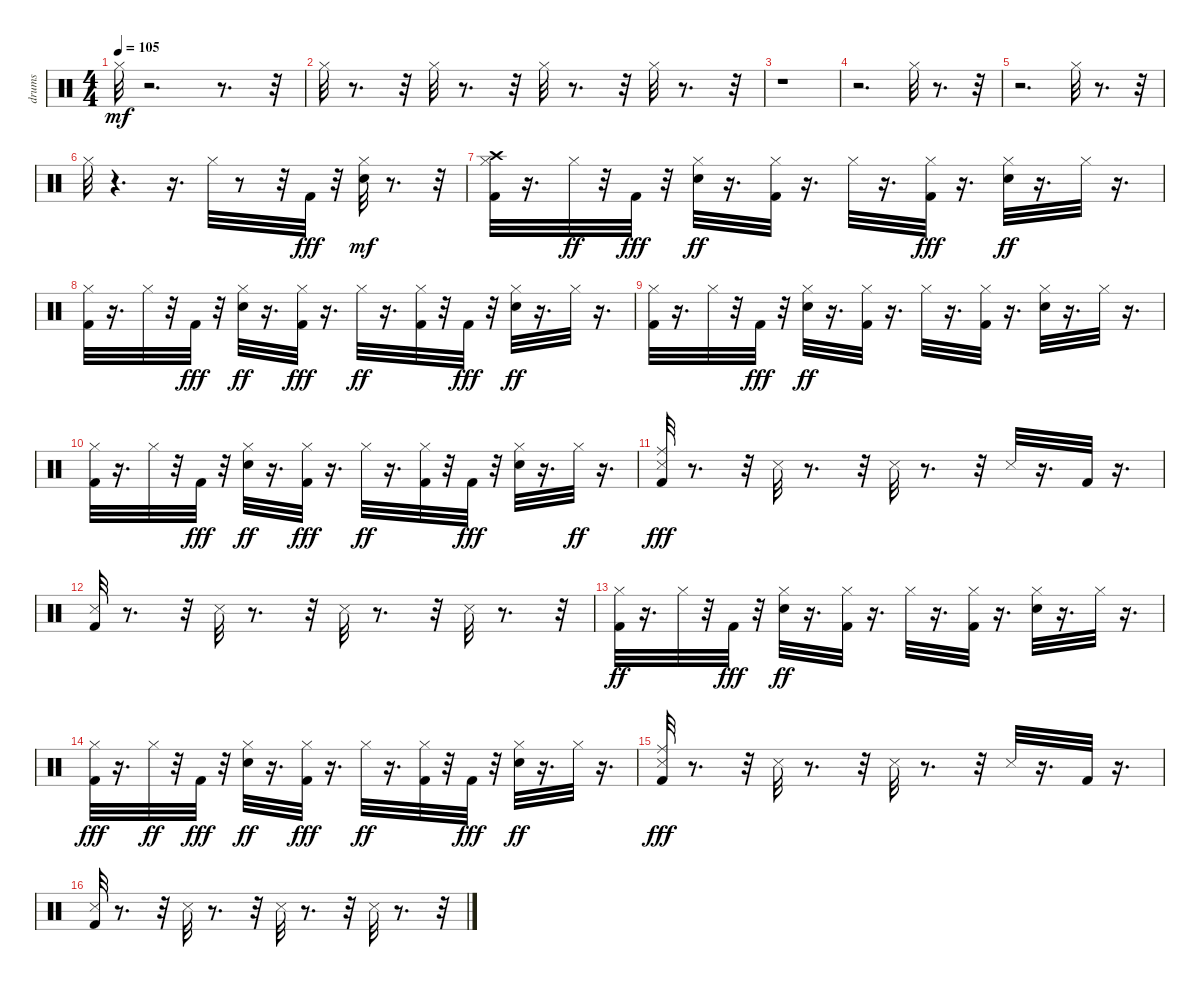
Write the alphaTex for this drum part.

\track ("drums" "drums") {instrument percussion}
\staff {score}
\articulation defaults
\ts (4 4)
\tempo 105
\clef neutral
\ks c "Hi-Hat (closed)".32{dy mf}
r.2{d} r.8{d} r.32 |
"Hi-Hat (closed)".32 r.8{d} r.32 "Hi-Hat (closed)".32 r.8{d} r.32 "Hi-Hat (closed)".32 r.8{d} r.32 "Hi-Hat (closed)".32 r.8{d} r.32 |
r.1 |
r.2{d} "Hi-Hat (closed)".32 r.8{d} r.32 |
r.2{d} "Hi-Hat (closed)".32 r.8{d} r.32 |
"Hi-Hat (closed)".32 r.4{d} r.16{d} "Hi-Hat (closed)".32 r.8 r.32 "Kick (hit) 2".32{dy fff} r.32 ("Electric Snare (hit)" "Hi-Hat (closed)").32{dy mf} r.8{d} r.32 |
("Hi-Hat (closed)" "Kick (hit) 2" "Crash high (hit)").32 r.16{d} "Hi-Hat (closed)".32{dy ff} r.32 "Kick (hit) 2".32{dy fff} r.32 ("Electric Snare (hit)" "Hi-Hat (closed)").32{dy ff} r.16{d} ("Kick (hit) 2" "Hi-Hat (closed)").32 r.16{d} "Hi-Hat (closed)".32 r.16{d} ("Hi-Hat (closed)" "Kick (hit) 2").32{dy fff} r.16{d} ("Electric Snare (hit)" "Hi-Hat (closed)").32{dy ff} r.16{d} "Hi-Hat (closed)".32 r.16{d} |
("Kick (hit) 2" "Hi-Hat (closed)").32 r.16{d} "Hi-Hat (closed)".32 r.32 "Kick (hit) 2".32{dy fff} r.32 ("Electric Snare (hit)" "Hi-Hat (closed)").32{dy ff} r.16{d} ("Hi-Hat (closed)" "Kick (hit) 2").32{dy fff} r.16{d} "Hi-Hat (closed)".32{dy ff} r.16{d} ("Kick (hit) 2" "Hi-Hat (closed)").32 r.32 "Kick (hit) 2".32{dy fff} r.32 ("Electric Snare (hit)" "Hi-Hat (closed)").32{dy ff} r.16{d} "Hi-Hat (closed)".32 r.16{d} |
("Kick (hit) 2" "Hi-Hat (closed)").32 r.16{d} "Hi-Hat (closed)".32 r.32 "Kick (hit) 2".32{dy fff} r.32 ("Electric Snare (hit)" "Hi-Hat (closed)").32{dy ff} r.16{d} ("Kick (hit) 2" "Hi-Hat (closed)").32 r.16{d} "Hi-Hat (closed)".32 r.16{d} ("Kick (hit) 2" "Hi-Hat (closed)").32 r.16{d} ("Electric Snare (hit)" "Hi-Hat (closed)").32 r.16{d} "Hi-Hat (closed)".32 r.16{d} |
("Kick (hit) 2" "Hi-Hat (closed)").32 r.16{d} "Hi-Hat (closed)".32 r.32 "Kick (hit) 2".32{dy fff} r.32 ("Electric Snare (hit)" "Hi-Hat (closed)").32{dy ff} r.16{d} ("Hi-Hat (closed)" "Kick (hit) 2").32{dy fff} r.16{d} "Hi-Hat (closed)".32{dy ff} r.16{d} ("Kick (hit) 2" "Hi-Hat (closed)").32 r.32 "Kick (hit) 2".32{dy fff} r.32 ("Hi-Hat (closed)" "Electric Snare (hit)").32 r.16{d} "Hi-Hat (closed)".32{dy ff} r.16{d} |
("Kick (hit) 2" "Ride (middle)" "Snare (side stick) 3").32{dy fff} r.8{d} r.32 "Snare (side stick) 3".32 r.8{d} r.32 "Snare (side stick) 3".32 r.8{d} r.32 "Snare (side stick) 3".32 r.16{d} "Kick (hit) 2".32 r.16{d} |
("Kick (hit) 2" "Snare (side stick) 3").32 r.8{d} r.32 "Snare (side stick) 3".32 r.8{d} r.32 "Snare (side stick) 3".32 r.8{d} r.32 "Snare (side stick) 3".32 r.8{d} r.32 |
("Kick (hit) 2" "Hi-Hat (closed)").32{dy ff} r.16{d} "Hi-Hat (closed)".32 r.32 "Kick (hit) 2".32{dy fff} r.32 ("Electric Snare (hit)" "Hi-Hat (closed)").32{dy ff} r.16{d} ("Kick (hit) 2" "Hi-Hat (closed)").32 r.16{d} "Hi-Hat (closed)".32 r.16{d} ("Kick (hit) 2" "Hi-Hat (closed)").32 r.16{d} ("Electric Snare (hit)" "Hi-Hat (closed)").32 r.16{d} "Hi-Hat (closed)".32 r.16{d} |
("Hi-Hat (closed)" "Kick (hit) 2").32{dy fff} r.16{d} "Hi-Hat (closed)".32{dy ff} r.32 "Kick (hit) 2".32{dy fff} r.32 ("Electric Snare (hit)" "Hi-Hat (closed)").32{dy ff} r.16{d} ("Hi-Hat (closed)" "Kick (hit) 2").32{dy fff} r.16{d} "Hi-Hat (closed)".32{dy ff} r.16{d} ("Kick (hit) 2" "Hi-Hat (closed)").32 r.32 "Kick (hit) 2".32{dy fff} r.32 ("Electric Snare (hit)" "Hi-Hat (closed)").32{dy ff} r.16{d} "Hi-Hat (closed)".32 r.16{d} |
("Ride (middle)" "Kick (hit) 2" "Snare (side stick) 3").32{dy fff} r.8{d} r.32 "Snare (side stick) 3".32 r.8{d} r.32 "Snare (side stick) 3".32 r.8{d} r.32 "Snare (side stick) 3".32 r.16{d} "Kick (hit) 2".32 r.16{d} |
("Kick (hit) 2" "Snare (side stick) 3").32 r.8{d} r.32 "Snare (side stick) 3".32 r.8{d} r.32 "Snare (side stick) 3".32 r.8{d} r.32 "Snare (side stick) 3".32 r.8{d} r.32
